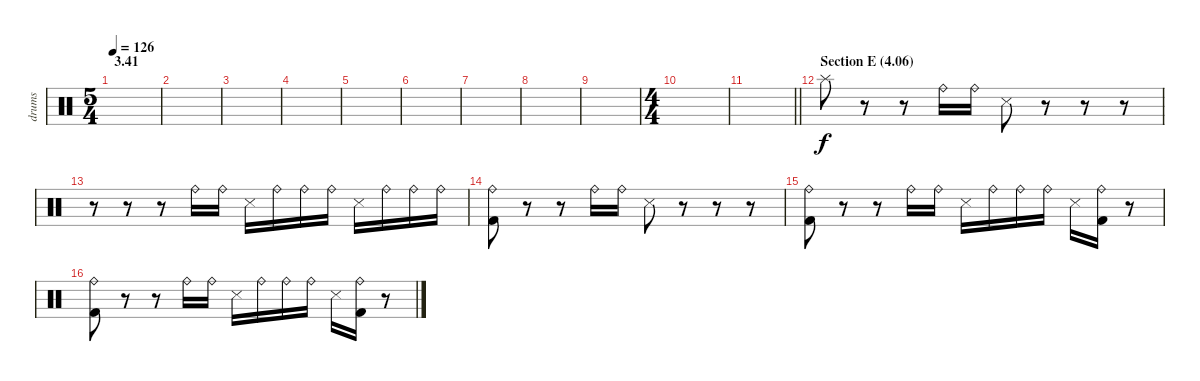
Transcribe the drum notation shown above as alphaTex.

\track ("drums" "drums") {instrument percussion}
\staff {score}
\articulation defaults
\ts (5 4)
\section ("" "3.41")
\tempo 126
\clef neutral
\ks c
|
|
|
|
|
|
|
|
|
\ts (4 4)
|
\barLineRight lightlight
|
\section ("" "Section E (4.06)")
"Splash (hit)".8 r.8 r.8 "Ride (bell)".16 "Ride (bell)".16 "Snare (side stick) 3".8 r.8 r.8 r.8 |
r.8 r.8 r.8 "Ride (bell)".16 "Ride (bell)".16 "Snare (side stick) 3".16 "Ride (bell)".16 "Ride (bell)".16 "Ride (bell)".16 "Snare (side stick) 3".16 "Ride (bell)".16 "Ride (bell)".16 "Ride (bell)".16 |
("Ride (bell)" "Kick (hit) 2").8 r.8 r.8 "Ride (bell)".16 "Ride (bell)".16 "Snare (side stick) 3".8 r.8 r.8 r.8 |
("Ride (bell)" "Kick (hit) 2").8 r.8 r.8 "Ride (bell)".16 "Ride (bell)".16 "Snare (side stick) 3".16 "Ride (bell)".16 "Ride (bell)".16 "Ride (bell)".16 "Snare (side stick) 3".16 ("Ride (bell)" "Kick (hit) 2").16 r.8 |
("Ride (bell)" "Kick (hit) 2").8 r.8 r.8 "Ride (bell)".16 "Ride (bell)".16 "Snare (side stick) 3".16 "Ride (bell)".16 "Ride (bell)".16 "Ride (bell)".16 "Snare (side stick) 3".16 ("Ride (bell)" "Kick (hit) 2").16 r.8
